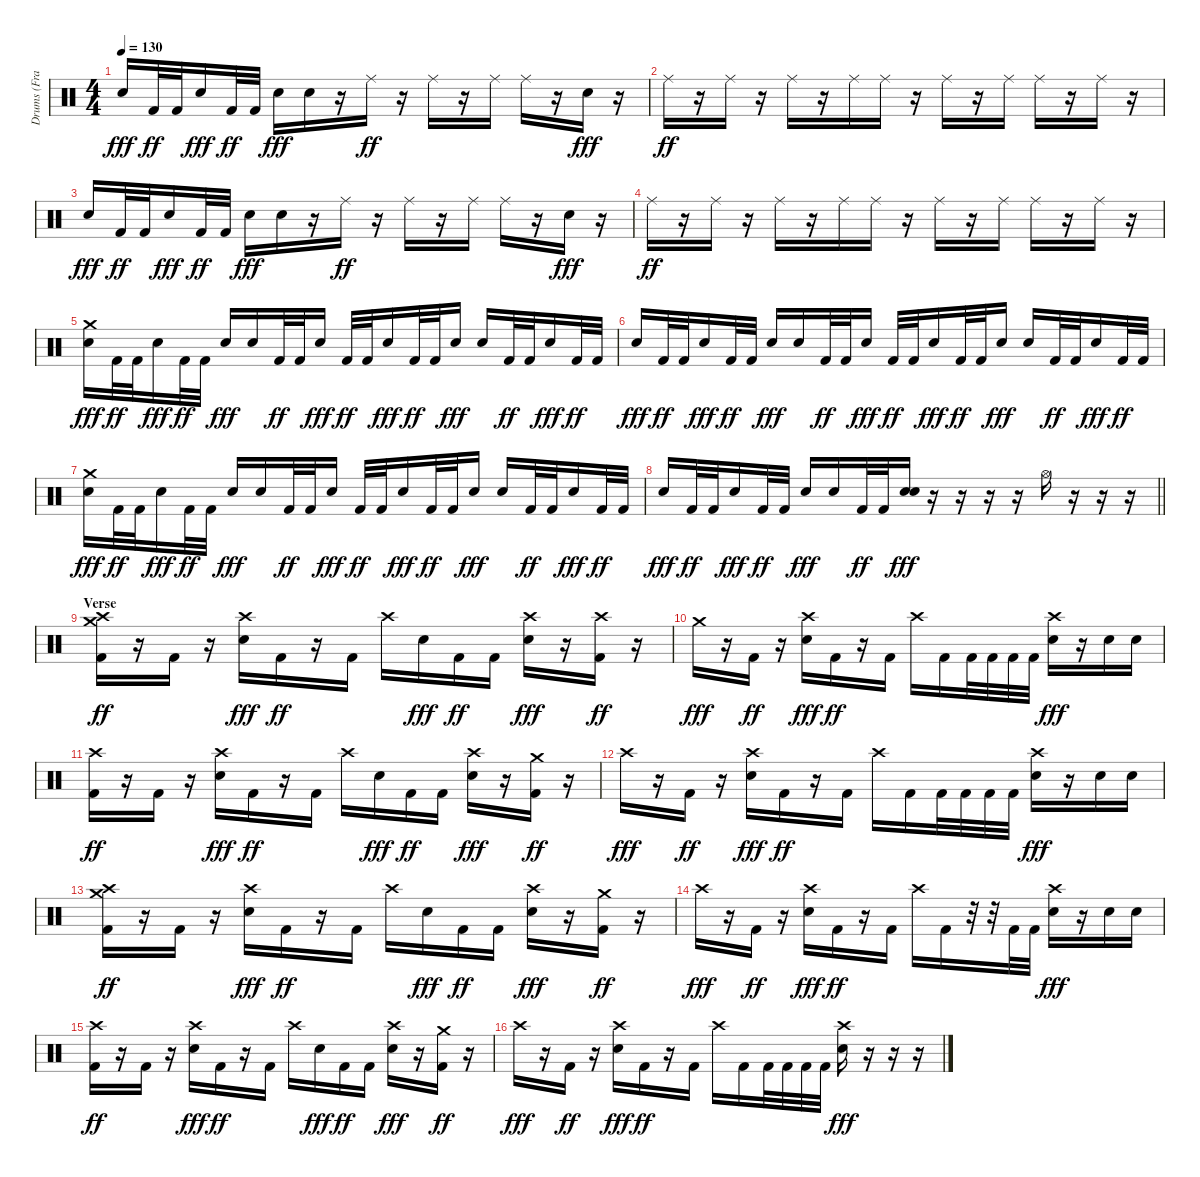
\track ("Drums (Franky)" "Drums (Fra") {instrument percussion}
\staff {score}
\articulation defaults
\ts (4 4)
\tempo 130
\clef neutral
\ks c "Electric Snare (hit)".16{dy fff} "Kick (hit) 2".32{dy ff} "Kick (hit) 2".32 "Electric Snare (hit)".16{dy fff} "Kick (hit) 2".32{dy ff} "Kick (hit) 2".32 "Electric Snare (hit)".16{dy fff} "Electric Snare (hit)".16
r.16 "Ride (middle)".16{dy ff} r.16 "Ride (middle)".16 r.16 "Ride (middle)".16 "Ride (middle)".16 r.16 "Electric Snare (hit)".16{dy fff} r.16 |
"Ride (middle)".16{dy ff} r.16 "Ride (middle)".16 r.16 "Ride (middle)".16 r.16 "Ride (middle)".16 "Ride (middle)".16 r.16 "Ride (middle)".16 r.16 "Ride (middle)".16 "Ride (middle)".16 r.16 "Ride (middle)".16 r.16 |
"Electric Snare (hit)".16{dy fff} "Kick (hit) 2".32{dy ff} "Kick (hit) 2".32 "Electric Snare (hit)".16{dy fff} "Kick (hit) 2".32{dy ff} "Kick (hit) 2".32 "Electric Snare (hit)".16{dy fff} "Electric Snare (hit)".16 r.16 "Ride (middle)".16{dy ff} r.16 "Ride (middle)".16 r.16 "Ride (middle)".16 "Ride (middle)".16 r.16 "Electric Snare (hit)".16{dy fff} r.16 |
"Ride (middle)".16{dy ff} r.16 "Ride (middle)".16 r.16 "Ride (middle)".16 r.16 "Ride (middle)".16 "Ride (middle)".16 r.16 "Ride (middle)".16 r.16 "Ride (middle)".16 "Ride (middle)".16 r.16 "Ride (middle)".16 r.16 |
("Crash medium (hit)" "Electric Snare (hit)").16{dy fff} "Kick (hit) 2".32{dy ff} "Kick (hit) 2".32 "Electric Snare (hit)".16{dy fff} "Kick (hit) 2".32{dy ff} "Kick (hit) 2".32 "Electric Snare (hit)".16{dy fff} "Electric Snare (hit)".16 "Kick (hit) 2".32{dy ff} "Kick (hit) 2".32 "Electric Snare (hit)".16{dy fff} "Kick (hit) 2".32{dy ff} "Kick (hit) 2".32 "Electric Snare (hit)".16{dy fff} "Kick (hit) 2".32{dy ff} "Kick (hit) 2".32 "Electric Snare (hit)".16{dy fff} "Electric Snare (hit)".16 "Kick (hit) 2".32{dy ff} "Kick (hit) 2".32 "Electric Snare (hit)".16{dy fff} "Kick (hit) 2".32{dy ff} "Kick (hit) 2".32 |
"Electric Snare (hit)".16{dy fff} "Kick (hit) 2".32{dy ff} "Kick (hit) 2".32 "Electric Snare (hit)".16{dy fff} "Kick (hit) 2".32{dy ff} "Kick (hit) 2".32 "Electric Snare (hit)".16{dy fff} "Electric Snare (hit)".16 "Kick (hit) 2".32{dy ff} "Kick (hit) 2".32 "Electric Snare (hit)".16{dy fff} "Kick (hit) 2".32{dy ff} "Kick (hit) 2".32 "Electric Snare (hit)".16{dy fff} "Kick (hit) 2".32{dy ff} "Kick (hit) 2".32 "Electric Snare (hit)".16{dy fff} "Electric Snare (hit)".16 "Kick (hit) 2".32{dy ff} "Kick (hit) 2".32 "Electric Snare (hit)".16{dy fff} "Kick (hit) 2".32{dy ff} "Kick (hit) 2".32 |
("Crash medium (hit)" "Electric Snare (hit)").16{dy fff} "Kick (hit) 2".32{dy ff} "Kick (hit) 2".32 "Electric Snare (hit)".16{dy fff} "Kick (hit) 2".32{dy ff} "Kick (hit) 2".32 "Electric Snare (hit)".16{dy fff} "Electric Snare (hit)".16 "Kick (hit) 2".32{dy ff} "Kick (hit) 2".32 "Electric Snare (hit)".16{dy fff} "Kick (hit) 2".32{dy ff} "Kick (hit) 2".32 "Electric Snare (hit)".16{dy fff} "Kick (hit) 2".32{dy ff} "Kick (hit) 2".32 "Electric Snare (hit)".16{dy fff} "Electric Snare (hit)".16 "Kick (hit) 2".32{dy ff} "Kick (hit) 2".32 "Electric Snare (hit)".16{dy fff} "Kick (hit) 2".32{dy ff} "Kick (hit) 2".32 |
\barLineRight lightlight "Electric Snare (hit)".16{dy fff} "Kick (hit) 2".32{dy ff} "Kick (hit) 2".32 "Electric Snare (hit)".16{dy fff} "Kick (hit) 2".32{dy ff} "Kick (hit) 2".32 "Electric Snare (hit)".16{dy fff} "Electric Snare (hit)".16 "Kick (hit) 2".32{dy ff} "Kick (hit) 2".32
("Electric Snare (hit)" "Electric Snare (hit)").16{bd 240 dy fff} r.16 r.16 r.16 r.16 "Hi-Hat (open)".16 r.16 r.16 r.16 |
\section ("" "Verse")
("Crash medium (hit)" "Crash high (hit)" "Kick (hit) 2").16{dy ff} r.16 "Kick (hit) 2".16 r.16 ("Crash high (hit)" "Electric Snare (hit)").16{dy fff} "Kick (hit) 2".16{dy ff} r.16 "Kick (hit) 2".16 "Crash high (hit)".16 "Electric Snare (hit)".16{dy fff} "Kick (hit) 2".16{dy ff} "Kick (hit) 2".16 ("Crash high (hit)" "Electric Snare (hit)").16{dy fff} r.16 ("Crash high (hit)" "Kick (hit) 2").16{dy ff} r.16 |
"Crash medium (hit)".16{dy fff} r.16 "Kick (hit) 2".16{dy ff} r.16 ("Crash high (hit)" "Electric Snare (hit)").16{dy fff} "Kick (hit) 2".16{dy ff} r.16 "Kick (hit) 2".16 "Crash high (hit)".16 "Kick (hit) 2".16 "Kick (hit) 2".32 "Kick (hit) 2".32 "Kick (hit) 2".32 "Kick (hit) 2".32 ("Crash high (hit)" "Electric Snare (hit)").16{dy fff} r.16 "Electric Snare (hit)".16 "Electric Snare (hit)".16 |
("Crash high (hit)" "Kick (hit) 2").16{dy ff} r.16 "Kick (hit) 2".16 r.16 ("Crash high (hit)" "Electric Snare (hit)").16{dy fff} "Kick (hit) 2".16{dy ff} r.16 "Kick (hit) 2".16 "Crash high (hit)".16 "Electric Snare (hit)".16{dy fff} "Kick (hit) 2".16{dy ff} "Kick (hit) 2".16 ("Crash high (hit)" "Electric Snare (hit)").16{dy fff} r.16 ("Crash medium (hit)" "Kick (hit) 2").16{dy ff} r.16 |
"Crash high (hit)".16{dy fff} r.16 "Kick (hit) 2".16{dy ff} r.16 ("Crash high (hit)" "Electric Snare (hit)").16{dy fff} "Kick (hit) 2".16{dy ff} r.16 "Kick (hit) 2".16 "Crash high (hit)".16 "Kick (hit) 2".16 "Kick (hit) 2".32 "Kick (hit) 2".32 "Kick (hit) 2".32 "Kick (hit) 2".32 ("Crash high (hit)" "Electric Snare (hit)").16{dy fff} r.16 "Electric Snare (hit)".16 "Electric Snare (hit)".16 |
("Crash medium (hit)" "Crash high (hit)" "Kick (hit) 2").16{dy ff} r.16 "Kick (hit) 2".16 r.16 ("Crash high (hit)" "Electric Snare (hit)").16{dy fff} "Kick (hit) 2".16{dy ff} r.16 "Kick (hit) 2".16 "Crash high (hit)".16 "Electric Snare (hit)".16{dy fff} "Kick (hit) 2".16{dy ff} "Kick (hit) 2".16 ("Crash high (hit)" "Electric Snare (hit)").16{dy fff} r.16 ("Crash medium (hit)" "Kick (hit) 2").16{dy ff} r.16 |
"Crash high (hit)".16{dy fff} r.16 "Kick (hit) 2".16{dy ff} r.16 ("Crash high (hit)" "Electric Snare (hit)").16{dy fff} "Kick (hit) 2".16{dy ff} r.16 "Kick (hit) 2".16 "Crash high (hit)".16 "Kick (hit) 2".16 r.32 r.32 "Kick (hit) 2".32 "Kick (hit) 2".32 ("Crash high (hit)" "Electric Snare (hit)").16{dy fff} r.16 "Electric Snare (hit)".16 "Electric Snare (hit)".16 |
("Crash high (hit)" "Kick (hit) 2").16{dy ff} r.16 "Kick (hit) 2".16 r.16 ("Crash high (hit)" "Electric Snare (hit)").16{dy fff} "Kick (hit) 2".16{dy ff} r.16 "Kick (hit) 2".16 "Crash high (hit)".16 "Electric Snare (hit)".16{dy fff} "Kick (hit) 2".16{dy ff} "Kick (hit) 2".16 ("Crash high (hit)" "Electric Snare (hit)").16{dy fff} r.16 ("Crash medium (hit)" "Kick (hit) 2").16{dy ff} r.16 |
"Crash high (hit)".16{dy fff} r.16 "Kick (hit) 2".16{dy ff} r.16 ("Crash high (hit)" "Electric Snare (hit)").16{dy fff} "Kick (hit) 2".16{dy ff} r.16 "Kick (hit) 2".16 "Crash high (hit)".16 "Kick (hit) 2".16 "Kick (hit) 2".32 "Kick (hit) 2".32 "Kick (hit) 2".32 "Kick (hit) 2".32 ("Crash high (hit)" "Electric Snare (hit)").16{dy fff} r.16 r.16 r.16
